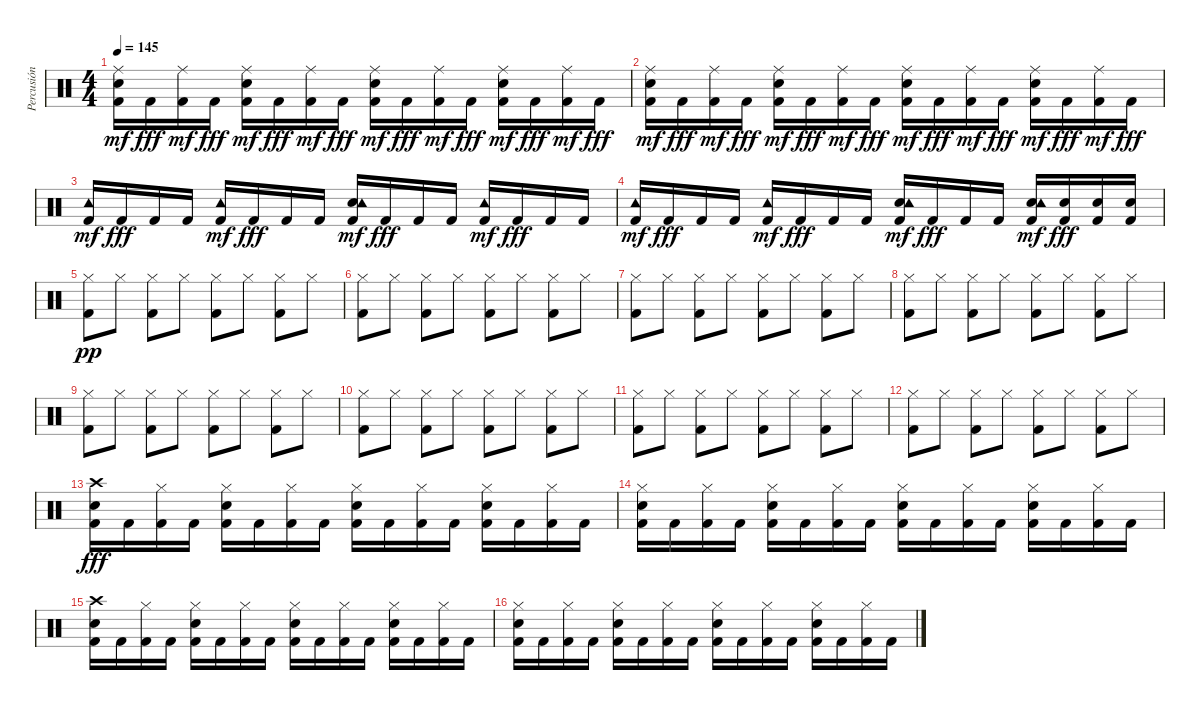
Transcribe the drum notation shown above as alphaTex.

\track ("Percusión" "Percusión") {instrument percussion}
\staff {score}
\articulation defaults
\ts (4 4)
\tempo 145
\clef neutral
\ks c
("Kick (hit) 2" "Snare (hit) 2" "Ride (middle)").16{dy mf} "Kick (hit) 2".16{dy fff} ("Kick (hit) 2" "Ride (middle)").16{dy mf} "Kick (hit) 2".16{dy fff} ("Kick (hit) 2" "Snare (hit) 2" "Ride (middle)").16{dy mf} "Kick (hit) 2".16{dy fff} ("Kick (hit) 2" "Ride (middle)").16{dy mf} "Kick (hit) 2".16{dy fff} ("Kick (hit) 2" "Snare (hit) 2" "Ride (middle)").16{dy mf} "Kick (hit) 2".16{dy fff} ("Kick (hit) 2" "Ride (middle)").16{dy mf} "Kick (hit) 2".16{dy fff} ("Kick (hit) 2" "Snare (hit) 2" "Ride (middle)").16{dy mf} "Kick (hit) 2".16{dy fff} ("Kick (hit) 2" "Ride (middle)").16{dy mf} "Kick (hit) 2".16{dy fff} |
("Kick (hit) 2" "Snare (hit) 2" "Ride (middle)").16{dy mf} "Kick (hit) 2".16{dy fff} ("Kick (hit) 2" "Ride (middle)").16{dy mf} "Kick (hit) 2".16{dy fff} ("Kick (hit) 2" "Snare (hit) 2" "Ride (middle)").16{dy mf} "Kick (hit) 2".16{dy fff} ("Kick (hit) 2" "Ride (middle)").16{dy mf} "Kick (hit) 2".16{dy fff} ("Kick (hit) 2" "Snare (hit) 2" "Ride (middle)").16{dy mf} "Kick (hit) 2".16{dy fff} ("Kick (hit) 2" "Ride (middle)").16{dy mf} "Kick (hit) 2".16{dy fff} ("Kick (hit) 2" "Snare (hit) 2" "Ride (middle)").16{dy mf} "Kick (hit) 2".16{dy fff} ("Kick (hit) 2" "Ride (middle)").16{dy mf} "Kick (hit) 2".16{dy fff} |
("Kick (hit) 2" "Tambourine (hit)").16{dy mf} "Kick (hit) 2".16{dy fff} "Kick (hit) 2".16 "Kick (hit) 2".16 ("Kick (hit) 2" "Tambourine (hit)").16{dy mf} "Kick (hit) 2".16{dy fff} "Kick (hit) 2".16 "Kick (hit) 2".16 ("Kick (hit) 2" "Snare (hit) 2" "Tambourine (hit)").16{dy mf} "Kick (hit) 2".16{dy fff} "Kick (hit) 2".16 "Kick (hit) 2".16 ("Kick (hit) 2" "Tambourine (hit)").16{dy mf} "Kick (hit) 2".16{dy fff} "Kick (hit) 2".16 "Kick (hit) 2".16 |
("Kick (hit) 2" "Tambourine (hit)").16{dy mf} "Kick (hit) 2".16{dy fff} "Kick (hit) 2".16 "Kick (hit) 2".16 ("Kick (hit) 2" "Tambourine (hit)").16{dy mf} "Kick (hit) 2".16{dy fff} "Kick (hit) 2".16 "Kick (hit) 2".16 ("Kick (hit) 2" "Snare (hit) 2" "Tambourine (hit)").16{dy mf} "Kick (hit) 2".16{dy fff} "Kick (hit) 2".16 "Kick (hit) 2".16 ("Kick (hit) 2" "Snare (hit) 2" "Tambourine (hit)").16{dy mf} ("Kick (hit) 2" "Snare (hit) 2").16{dy fff} ("Kick (hit) 2" "Snare (hit) 2").16 ("Kick (hit) 2" "Snare (hit) 2").16 |
("Hi-Hat (closed)" "Kick (hit) 2").8{dy pp} "Hi-Hat (closed)".8 ("Hi-Hat (closed)" "Kick (hit) 2").8 "Hi-Hat (closed)".8 ("Hi-Hat (closed)" "Kick (hit) 2").8 "Hi-Hat (closed)".8 ("Hi-Hat (closed)" "Kick (hit) 2").8 "Hi-Hat (closed)".8 |
("Hi-Hat (closed)" "Kick (hit) 2").8 "Hi-Hat (closed)".8 ("Hi-Hat (closed)" "Kick (hit) 2").8 "Hi-Hat (closed)".8 ("Hi-Hat (closed)" "Kick (hit) 2").8 "Hi-Hat (closed)".8 ("Hi-Hat (closed)" "Kick (hit) 2").8 "Hi-Hat (closed)".8 |
("Hi-Hat (closed)" "Kick (hit) 2").8 "Hi-Hat (closed)".8 ("Hi-Hat (closed)" "Kick (hit) 2").8 "Hi-Hat (closed)".8 ("Hi-Hat (closed)" "Kick (hit) 2").8 "Hi-Hat (closed)".8 ("Hi-Hat (closed)" "Kick (hit) 2").8 "Hi-Hat (closed)".8 |
("Hi-Hat (closed)" "Kick (hit) 2").8 "Hi-Hat (closed)".8 ("Hi-Hat (closed)" "Kick (hit) 2").8 "Hi-Hat (closed)".8 ("Hi-Hat (closed)" "Kick (hit) 2").8 "Hi-Hat (closed)".8 ("Hi-Hat (closed)" "Kick (hit) 2").8 "Hi-Hat (closed)".8 |
("Hi-Hat (closed)" "Kick (hit) 2").8 "Hi-Hat (closed)".8 ("Hi-Hat (closed)" "Kick (hit) 2").8 "Hi-Hat (closed)".8 ("Hi-Hat (closed)" "Kick (hit) 2").8 "Hi-Hat (closed)".8 ("Hi-Hat (closed)" "Kick (hit) 2").8 "Hi-Hat (closed)".8 |
("Hi-Hat (closed)" "Kick (hit) 2").8 "Hi-Hat (closed)".8 ("Hi-Hat (closed)" "Kick (hit) 2").8 "Hi-Hat (closed)".8 ("Hi-Hat (closed)" "Kick (hit) 2").8 "Hi-Hat (closed)".8 ("Hi-Hat (closed)" "Kick (hit) 2").8 "Hi-Hat (closed)".8 |
("Hi-Hat (closed)" "Kick (hit) 2").8 "Hi-Hat (closed)".8 ("Hi-Hat (closed)" "Kick (hit) 2").8 "Hi-Hat (closed)".8 ("Hi-Hat (closed)" "Kick (hit) 2").8 "Hi-Hat (closed)".8 ("Hi-Hat (closed)" "Kick (hit) 2").8 "Hi-Hat (closed)".8 |
("Hi-Hat (closed)" "Kick (hit) 2").8 "Hi-Hat (closed)".8 ("Hi-Hat (closed)" "Kick (hit) 2").8 "Hi-Hat (closed)".8 ("Hi-Hat (closed)" "Kick (hit) 2").8 "Hi-Hat (closed)".8 ("Hi-Hat (closed)" "Kick (hit) 2").8 "Hi-Hat (closed)".8 |
("Kick (hit) 2" "Snare (hit) 2" "Crash high (hit)").16{dy fff} "Kick (hit) 2".16 ("Kick (hit) 2" "Hi-Hat (closed)").16 "Kick (hit) 2".16 ("Kick (hit) 2" "Snare (hit) 2" "Hi-Hat (closed)").16 "Kick (hit) 2".16 ("Kick (hit) 2" "Hi-Hat (closed)").16 "Kick (hit) 2".16 ("Kick (hit) 2" "Snare (hit) 2" "Hi-Hat (closed)").16 "Kick (hit) 2".16 ("Kick (hit) 2" "Hi-Hat (closed)").16 "Kick (hit) 2".16 ("Kick (hit) 2" "Snare (hit) 2" "Hi-Hat (closed)").16 "Kick (hit) 2".16 ("Kick (hit) 2" "Hi-Hat (closed)").16 "Kick (hit) 2".16 |
("Kick (hit) 2" "Snare (hit) 2" "Hi-Hat (closed)").16 "Kick (hit) 2".16 ("Kick (hit) 2" "Hi-Hat (closed)").16 "Kick (hit) 2".16 ("Kick (hit) 2" "Snare (hit) 2" "Hi-Hat (closed)").16 "Kick (hit) 2".16 ("Kick (hit) 2" "Hi-Hat (closed)").16 "Kick (hit) 2".16 ("Kick (hit) 2" "Snare (hit) 2" "Hi-Hat (closed)").16 "Kick (hit) 2".16 ("Kick (hit) 2" "Hi-Hat (closed)").16 "Kick (hit) 2".16 ("Kick (hit) 2" "Snare (hit) 2" "Hi-Hat (closed)").16 "Kick (hit) 2".16 ("Kick (hit) 2" "Hi-Hat (closed)").16 "Kick (hit) 2".16 |
("Kick (hit) 2" "Snare (hit) 2" "Crash high (hit)").16 "Kick (hit) 2".16 ("Kick (hit) 2" "Hi-Hat (closed)").16 "Kick (hit) 2".16 ("Kick (hit) 2" "Snare (hit) 2" "Hi-Hat (closed)").16 "Kick (hit) 2".16 ("Kick (hit) 2" "Hi-Hat (closed)").16 "Kick (hit) 2".16 ("Kick (hit) 2" "Snare (hit) 2" "Hi-Hat (closed)").16 "Kick (hit) 2".16 ("Kick (hit) 2" "Hi-Hat (closed)").16 "Kick (hit) 2".16 ("Kick (hit) 2" "Snare (hit) 2" "Hi-Hat (closed)").16 "Kick (hit) 2".16 ("Kick (hit) 2" "Hi-Hat (closed)").16 "Kick (hit) 2".16 |
("Kick (hit) 2" "Snare (hit) 2" "Hi-Hat (closed)").16 "Kick (hit) 2".16 ("Kick (hit) 2" "Hi-Hat (closed)").16 "Kick (hit) 2".16 ("Kick (hit) 2" "Snare (hit) 2" "Hi-Hat (closed)").16 "Kick (hit) 2".16 ("Kick (hit) 2" "Hi-Hat (closed)").16 "Kick (hit) 2".16 ("Kick (hit) 2" "Snare (hit) 2" "Hi-Hat (closed)").16 "Kick (hit) 2".16 ("Kick (hit) 2" "Hi-Hat (closed)").16 "Kick (hit) 2".16 ("Kick (hit) 2" "Snare (hit) 2" "Hi-Hat (closed)").16 "Kick (hit) 2".16 ("Kick (hit) 2" "Hi-Hat (closed)").16 "Kick (hit) 2".16
